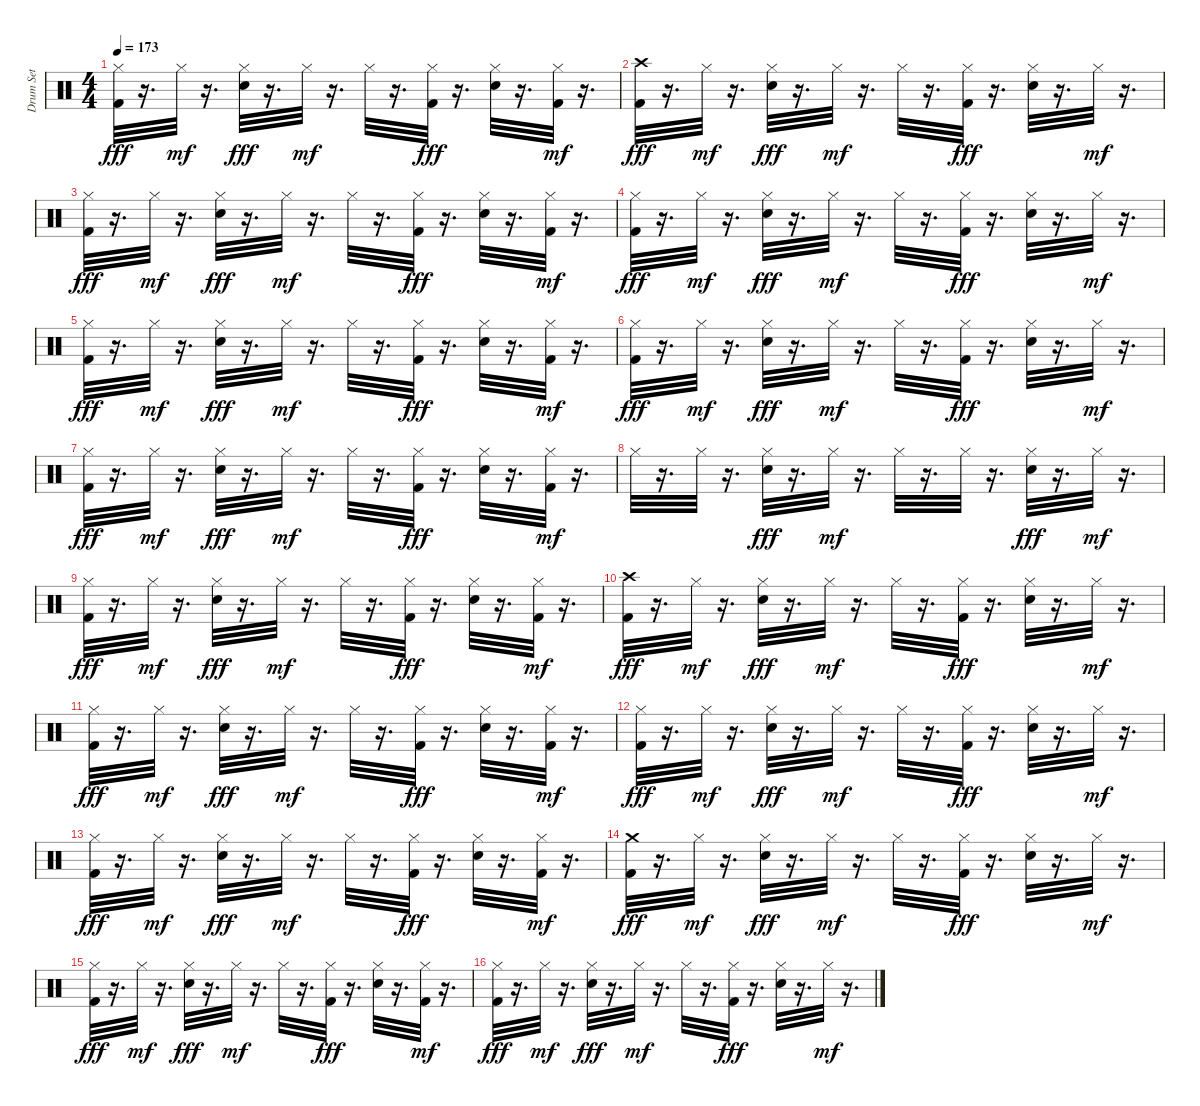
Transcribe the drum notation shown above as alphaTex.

\track ("Drum Set" "Drum Set") {instrument percussion}
\staff {score}
\articulation defaults
\ts (4 4)
\tempo 173
\clef neutral
\ks c
("Hi-Hat (closed)" "Kick (hit) 2").32{dy fff} r.16{d} "Hi-Hat (closed)".32{dy mf} r.16{d} ("Hi-Hat (closed)" "Electric Snare (hit)").32{dy fff} r.16{d} "Hi-Hat (closed)".32{dy mf} r.16{d} "Hi-Hat (closed)".32 r.16{d} ("Hi-Hat (closed)" "Kick (hit) 2").32{dy fff} r.16{d} ("Hi-Hat (closed)" "Electric Snare (hit)").32 r.16{d} ("Kick (hit) 2" "Hi-Hat (closed)").32{dy mf} r.16{d} |
("Crash high (hit)" "Kick (hit) 2").32{dy fff} r.16{d} "Hi-Hat (closed)".32{dy mf} r.16{d} ("Hi-Hat (closed)" "Electric Snare (hit)").32{dy fff} r.16{d} "Hi-Hat (closed)".32{dy mf} r.16{d} "Hi-Hat (closed)".32 r.16{d} ("Hi-Hat (closed)" "Kick (hit) 2").32{dy fff} r.16{d} ("Hi-Hat (closed)" "Electric Snare (hit)").32 r.16{d} "Hi-Hat (closed)".32{dy mf} r.16{d} |
("Hi-Hat (closed)" "Kick (hit) 2").32{dy fff} r.16{d} "Hi-Hat (closed)".32{dy mf} r.16{d} ("Hi-Hat (closed)" "Electric Snare (hit)").32{dy fff} r.16{d} "Hi-Hat (closed)".32{dy mf} r.16{d} "Hi-Hat (closed)".32 r.16{d} ("Hi-Hat (closed)" "Kick (hit) 2").32{dy fff} r.16{d} ("Hi-Hat (closed)" "Electric Snare (hit)").32 r.16{d} ("Kick (hit) 2" "Hi-Hat (closed)").32{dy mf} r.16{d} |
("Hi-Hat (closed)" "Kick (hit) 2").32{dy fff} r.16{d} "Hi-Hat (closed)".32{dy mf} r.16{d} ("Hi-Hat (closed)" "Electric Snare (hit)").32{dy fff} r.16{d} "Hi-Hat (closed)".32{dy mf} r.16{d} "Hi-Hat (closed)".32 r.16{d} ("Hi-Hat (closed)" "Kick (hit) 2").32{dy fff} r.16{d} ("Hi-Hat (closed)" "Electric Snare (hit)").32 r.16{d} "Hi-Hat (closed)".32{dy mf} r.16{d} |
("Hi-Hat (closed)" "Kick (hit) 2").32{dy fff} r.16{d} "Hi-Hat (closed)".32{dy mf} r.16{d} ("Hi-Hat (closed)" "Electric Snare (hit)").32{dy fff} r.16{d} "Hi-Hat (closed)".32{dy mf} r.16{d} "Hi-Hat (closed)".32 r.16{d} ("Hi-Hat (closed)" "Kick (hit) 2").32{dy fff} r.16{d} ("Hi-Hat (closed)" "Electric Snare (hit)").32 r.16{d} ("Kick (hit) 2" "Hi-Hat (closed)").32{dy mf} r.16{d} |
("Hi-Hat (closed)" "Kick (hit) 2").32{dy fff} r.16{d} "Hi-Hat (closed)".32{dy mf} r.16{d} ("Hi-Hat (closed)" "Electric Snare (hit)").32{dy fff} r.16{d} "Hi-Hat (closed)".32{dy mf} r.16{d} "Hi-Hat (closed)".32 r.16{d} ("Hi-Hat (closed)" "Kick (hit) 2").32{dy fff} r.16{d} ("Hi-Hat (closed)" "Electric Snare (hit)").32 r.16{d} "Hi-Hat (closed)".32{dy mf} r.16{d} |
("Hi-Hat (closed)" "Kick (hit) 2").32{dy fff} r.16{d} "Hi-Hat (closed)".32{dy mf} r.16{d} ("Hi-Hat (closed)" "Electric Snare (hit)").32{dy fff} r.16{d} "Hi-Hat (closed)".32{dy mf} r.16{d} "Hi-Hat (closed)".32 r.16{d} ("Hi-Hat (closed)" "Kick (hit) 2").32{dy fff} r.16{d} ("Hi-Hat (closed)" "Electric Snare (hit)").32 r.16{d} ("Kick (hit) 2" "Hi-Hat (closed)").32{dy mf} r.16{d} |
"Hi-Hat (closed)".32 r.16{d} "Hi-Hat (closed)".32 r.16{d} ("Hi-Hat (closed)" "Electric Snare (hit)").32{dy fff} r.16{d} "Hi-Hat (closed)".32{dy mf} r.16{d} "Hi-Hat (closed)".32 r.16{d} "Hi-Hat (closed)".32 r.16{d} ("Hi-Hat (closed)" "Electric Snare (hit)").32{dy fff} r.16{d} "Hi-Hat (closed)".32{dy mf} r.16{d} |
("Hi-Hat (closed)" "Kick (hit) 2").32{dy fff} r.16{d} "Hi-Hat (closed)".32{dy mf} r.16{d} ("Hi-Hat (closed)" "Electric Snare (hit)").32{dy fff} r.16{d} "Hi-Hat (closed)".32{dy mf} r.16{d} "Hi-Hat (closed)".32 r.16{d} ("Hi-Hat (closed)" "Kick (hit) 2").32{dy fff} r.16{d} ("Hi-Hat (closed)" "Electric Snare (hit)").32 r.16{d} ("Kick (hit) 2" "Hi-Hat (closed)").32{dy mf} r.16{d} |
("Crash high (hit)" "Kick (hit) 2").32{dy fff} r.16{d} "Hi-Hat (closed)".32{dy mf} r.16{d} ("Hi-Hat (closed)" "Electric Snare (hit)").32{dy fff} r.16{d} "Hi-Hat (closed)".32{dy mf} r.16{d} "Hi-Hat (closed)".32 r.16{d} ("Hi-Hat (closed)" "Kick (hit) 2").32{dy fff} r.16{d} ("Hi-Hat (closed)" "Electric Snare (hit)").32 r.16{d} "Hi-Hat (closed)".32{dy mf} r.16{d} |
("Hi-Hat (closed)" "Kick (hit) 2").32{dy fff} r.16{d} "Hi-Hat (closed)".32{dy mf} r.16{d} ("Hi-Hat (closed)" "Electric Snare (hit)").32{dy fff} r.16{d} "Hi-Hat (closed)".32{dy mf} r.16{d} "Hi-Hat (closed)".32 r.16{d} ("Hi-Hat (closed)" "Kick (hit) 2").32{dy fff} r.16{d} ("Hi-Hat (closed)" "Electric Snare (hit)").32 r.16{d} ("Kick (hit) 2" "Hi-Hat (closed)").32{dy mf} r.16{d} |
("Hi-Hat (closed)" "Kick (hit) 2").32{dy fff} r.16{d} "Hi-Hat (closed)".32{dy mf} r.16{d} ("Hi-Hat (closed)" "Electric Snare (hit)").32{dy fff} r.16{d} "Hi-Hat (closed)".32{dy mf} r.16{d} "Hi-Hat (closed)".32 r.16{d} ("Hi-Hat (closed)" "Kick (hit) 2").32{dy fff} r.16{d} ("Hi-Hat (closed)" "Electric Snare (hit)").32 r.16{d} "Hi-Hat (closed)".32{dy mf} r.16{d} |
("Hi-Hat (closed)" "Kick (hit) 2").32{dy fff} r.16{d} "Hi-Hat (closed)".32{dy mf} r.16{d} ("Hi-Hat (closed)" "Electric Snare (hit)").32{dy fff} r.16{d} "Hi-Hat (closed)".32{dy mf} r.16{d} "Hi-Hat (closed)".32 r.16{d} ("Hi-Hat (closed)" "Kick (hit) 2").32{dy fff} r.16{d} ("Hi-Hat (closed)" "Electric Snare (hit)").32 r.16{d} ("Kick (hit) 2" "Hi-Hat (closed)").32{dy mf} r.16{d} |
("Crash medium (hit)" "Kick (hit) 2").32{dy fff} r.16{d} "Hi-Hat (closed)".32{dy mf} r.16{d} ("Hi-Hat (closed)" "Electric Snare (hit)").32{dy fff} r.16{d} "Hi-Hat (closed)".32{dy mf} r.16{d} "Hi-Hat (closed)".32 r.16{d} ("Hi-Hat (closed)" "Kick (hit) 2").32{dy fff} r.16{d} ("Hi-Hat (closed)" "Electric Snare (hit)").32 r.16{d} "Hi-Hat (closed)".32{dy mf} r.16{d} |
("Hi-Hat (closed)" "Kick (hit) 2").32{dy fff} r.16{d} "Hi-Hat (closed)".32{dy mf} r.16{d} ("Hi-Hat (closed)" "Electric Snare (hit)").32{dy fff} r.16{d} "Hi-Hat (closed)".32{dy mf} r.16{d} "Hi-Hat (closed)".32 r.16{d} ("Hi-Hat (closed)" "Kick (hit) 2").32{dy fff} r.16{d} ("Hi-Hat (closed)" "Electric Snare (hit)").32 r.16{d} ("Kick (hit) 2" "Hi-Hat (closed)").32{dy mf} r.16{d} |
("Hi-Hat (closed)" "Kick (hit) 2").32{dy fff} r.16{d} "Hi-Hat (closed)".32{dy mf} r.16{d} ("Hi-Hat (closed)" "Electric Snare (hit)").32{dy fff} r.16{d} "Hi-Hat (closed)".32{dy mf} r.16{d} "Hi-Hat (closed)".32 r.16{d} ("Hi-Hat (closed)" "Kick (hit) 2").32{dy fff} r.16{d} ("Hi-Hat (closed)" "Electric Snare (hit)").32 r.16{d} "Hi-Hat (closed)".32{dy mf} r.16{d}
